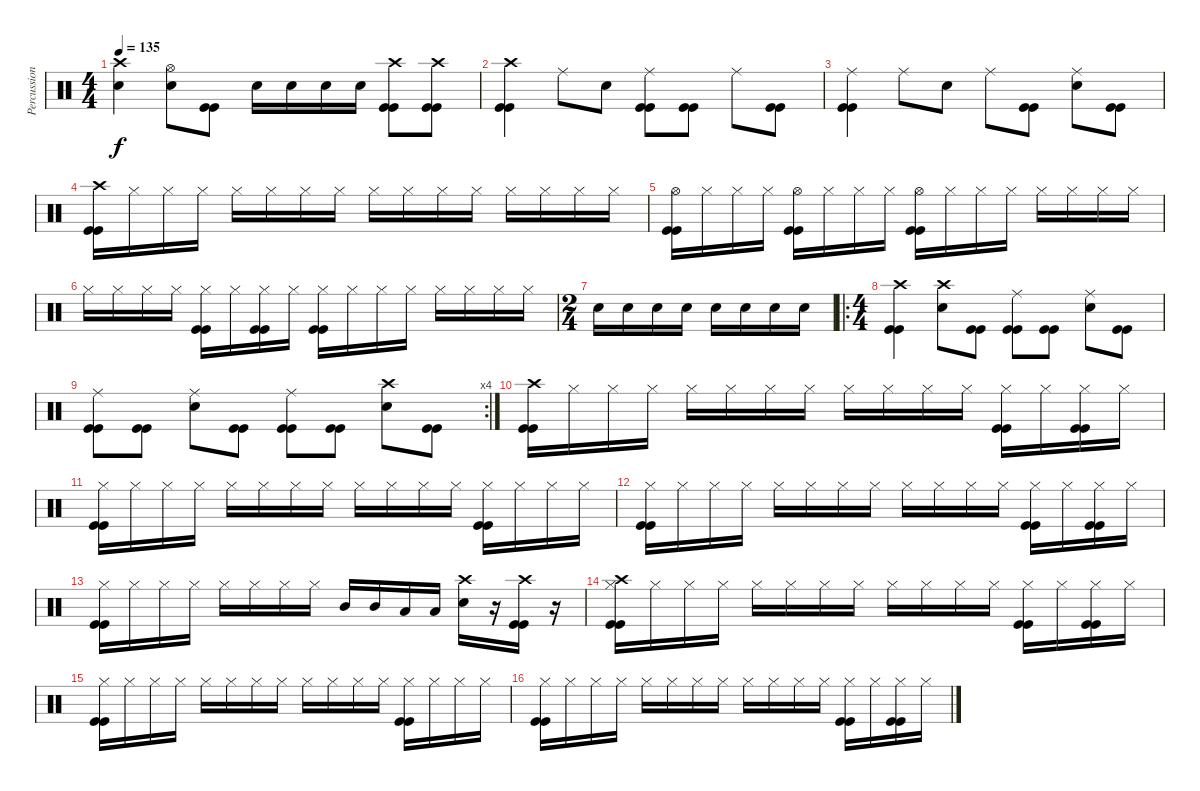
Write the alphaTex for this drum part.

\track ("Percussion" "Percussion") {instrument percussion}
\staff {score}
\articulation defaults
\ts (4 4)
\tempo 135
\clef neutral
\ks c
("Crash high (hit)" "Electric Snare (hit)").4{dy f} ("Hi-Hat (open)" "Electric Snare (hit)").8 ("Kick (hit)" "Kick (hit)").8 "Electric Snare (hit)".16 "Electric Snare (hit)".16 "Electric Snare (hit)".16 "Electric Snare (hit)".16 ("Crash high (hit)" "Kick (hit)" "Kick (hit)").8 ("Crash high (hit)" "Kick (hit)" "Kick (hit)").8 |
("Crash high (hit)" "Kick (hit)" "Kick (hit)").4 "Ride (middle)".8 "Electric Snare (hit)".8 ("Ride (middle)" "Kick (hit)" "Kick (hit)").8 ("Kick (hit)" "Kick (hit)").8 "Ride (middle)".8 ("Kick (hit)" "Kick (hit)").8 |
("Ride (middle)" "Kick (hit)" "Kick (hit)").4 "Ride (middle)".8 "Electric Snare (hit)".8 "Ride (middle)".8 ("Kick (hit)" "Kick (hit)").8 ("Ride (middle)" "Electric Snare (hit)").8 ("Kick (hit)" "Kick (hit)").8 |
("Crash high (hit)" "Kick (hit)" "Kick (hit)").16 "Hi-Hat (closed)".16 "Hi-Hat (closed)".16 "Hi-Hat (closed)".16 "Hi-Hat (closed)".16 "Hi-Hat (closed)".16 "Hi-Hat (closed)".16 "Hi-Hat (closed)".16 "Hi-Hat (closed)".16 "Hi-Hat (closed)".16 "Hi-Hat (closed)".16 "Hi-Hat (closed)".16 "Hi-Hat (closed)".16 "Hi-Hat (closed)".16 "Hi-Hat (closed)".16 "Hi-Hat (closed)".16 |
("Hi-Hat (open)" "Kick (hit)" "Kick (hit)").16 "Hi-Hat (closed)".16 "Hi-Hat (closed)".16 "Hi-Hat (closed)".16 ("Hi-Hat (open)" "Kick (hit)" "Kick (hit)").16 "Hi-Hat (closed)".16 "Hi-Hat (closed)".16 "Hi-Hat (closed)".16 ("Hi-Hat (open)" "Kick (hit)" "Kick (hit)").16 "Hi-Hat (closed)".16 "Hi-Hat (closed)".16 "Hi-Hat (closed)".16 "Hi-Hat (closed)".16 "Hi-Hat (closed)".16 "Hi-Hat (closed)".16 "Hi-Hat (closed)".16 |
"Hi-Hat (closed)".16 "Hi-Hat (closed)".16 "Hi-Hat (closed)".16 "Hi-Hat (closed)".16 ("Hi-Hat (closed)" "Kick (hit)" "Kick (hit)").16 "Hi-Hat (closed)".16 ("Hi-Hat (closed)" "Kick (hit)" "Kick (hit)").16 "Hi-Hat (closed)".16 ("Hi-Hat (closed)" "Kick (hit)" "Kick (hit)").16 "Hi-Hat (closed)".16 "Hi-Hat (closed)".16 "Hi-Hat (closed)".16 "Hi-Hat (closed)".16 "Hi-Hat (closed)".16 "Hi-Hat (closed)".16 "Hi-Hat (closed)".16 |
\ts (2 4)
"Electric Snare (hit)".16 "Electric Snare (hit)".16 "Electric Snare (hit)".16 "Electric Snare (hit)".16 "Electric Snare (hit)".16 "Electric Snare (hit)".16 "Electric Snare (hit)".16 "Electric Snare (hit)".16 |
\ro
\ts (4 4)
("Crash high (hit)" "Kick (hit)" "Kick (hit)").4 ("Crash high (hit)" "Electric Snare (hit)").8 ("Kick (hit)" "Kick (hit)").8 ("Ride (middle)" "Kick (hit)" "Kick (hit)").8 ("Kick (hit)" "Kick (hit)").8 ("Ride (middle)" "Electric Snare (hit)").8 ("Kick (hit)" "Kick (hit)").8 |
\rc 4
("Ride (middle)" "Kick (hit)" "Kick (hit)").8 ("Kick (hit)" "Kick (hit)").8 ("Ride (middle)" "Electric Snare (hit)").8 ("Kick (hit)" "Kick (hit)").8 ("Ride (middle)" "Kick (hit)" "Kick (hit)").8 ("Kick (hit)" "Kick (hit)").8 ("Crash high (hit)" "Electric Snare (hit)").8 ("Kick (hit)" "Kick (hit)").8 |
("Crash high (hit)" "Kick (hit)" "Kick (hit)").16 "Hi-Hat (closed)".16 "Hi-Hat (closed)".16 "Hi-Hat (closed)".16 "Hi-Hat (closed)".16 "Hi-Hat (closed)".16 "Hi-Hat (closed)".16 "Hi-Hat (closed)".16 "Hi-Hat (closed)".16 "Hi-Hat (closed)".16 "Hi-Hat (closed)".16 "Hi-Hat (closed)".16 ("Hi-Hat (closed)" "Kick (hit)" "Kick (hit)").16 "Hi-Hat (closed)".16 ("Hi-Hat (closed)" "Kick (hit)" "Kick (hit)").16 "Hi-Hat (closed)".16 |
("Hi-Hat (closed)" "Kick (hit)" "Kick (hit)").16 "Hi-Hat (closed)".16 "Hi-Hat (closed)".16 "Hi-Hat (closed)".16 "Hi-Hat (closed)".16 "Hi-Hat (closed)".16 "Hi-Hat (closed)".16 "Hi-Hat (closed)".16 "Hi-Hat (closed)".16 "Hi-Hat (closed)".16 "Hi-Hat (closed)".16 "Hi-Hat (closed)".16 ("Hi-Hat (closed)" "Kick (hit)" "Kick (hit)").16 "Hi-Hat (closed)".16 "Hi-Hat (closed)".16 "Hi-Hat (closed)".16 |
("Hi-Hat (closed)" "Kick (hit)" "Kick (hit)").16 "Hi-Hat (closed)".16 "Hi-Hat (closed)".16 "Hi-Hat (closed)".16 "Hi-Hat (closed)".16 "Hi-Hat (closed)".16 "Hi-Hat (closed)".16 "Hi-Hat (closed)".16 "Hi-Hat (closed)".16 "Hi-Hat (closed)".16 "Hi-Hat (closed)".16 "Hi-Hat (closed)".16 ("Hi-Hat (closed)" "Kick (hit)" "Kick (hit)").16 "Hi-Hat (closed)".16 ("Hi-Hat (closed)" "Kick (hit)" "Kick (hit)").16 "Hi-Hat (closed)".16 |
("Hi-Hat (closed)" "Kick (hit)" "Kick (hit)").16 "Hi-Hat (closed)".16 "Hi-Hat (closed)".16 "Hi-Hat (closed)".16 "Hi-Hat (closed)".16 "Hi-Hat (closed)".16 "Hi-Hat (closed)".16 "Hi-Hat (closed)".16 "Mid Tom (hit)".16 "Mid Tom (hit)".16 "Low Floor Tom (hit)".16 "Low Floor Tom (hit)".16 ("Crash high (hit)" "Electric Snare (hit)").16 r.16 ("Crash high (hit)" "Kick (hit)" "Kick (hit)").16 r.16 |
("Crash high (hit)" "Hi-Hat (closed)" "Kick (hit)" "Kick (hit)").16 "Hi-Hat (closed)".16 "Hi-Hat (closed)".16 "Hi-Hat (closed)".16 "Hi-Hat (closed)".16 "Hi-Hat (closed)".16 "Hi-Hat (closed)".16 "Hi-Hat (closed)".16 "Hi-Hat (closed)".16 "Hi-Hat (closed)".16 "Hi-Hat (closed)".16 "Hi-Hat (closed)".16 ("Hi-Hat (closed)" "Kick (hit)" "Kick (hit)").16 "Hi-Hat (closed)".16 ("Hi-Hat (closed)" "Kick (hit)" "Kick (hit)").16 "Hi-Hat (closed)".16 |
("Hi-Hat (closed)" "Kick (hit)" "Kick (hit)").16 "Hi-Hat (closed)".16 "Hi-Hat (closed)".16 "Hi-Hat (closed)".16 "Hi-Hat (closed)".16 "Hi-Hat (closed)".16 "Hi-Hat (closed)".16 "Hi-Hat (closed)".16 "Hi-Hat (closed)".16 "Hi-Hat (closed)".16 "Hi-Hat (closed)".16 "Hi-Hat (closed)".16 ("Hi-Hat (closed)" "Kick (hit)" "Kick (hit)").16 "Hi-Hat (closed)".16 "Hi-Hat (closed)".16 "Hi-Hat (closed)".16 |
("Hi-Hat (closed)" "Kick (hit)" "Kick (hit)").16 "Hi-Hat (closed)".16 "Hi-Hat (closed)".16 "Hi-Hat (closed)".16 "Hi-Hat (closed)".16 "Hi-Hat (closed)".16 "Hi-Hat (closed)".16 "Hi-Hat (closed)".16 "Hi-Hat (closed)".16 "Hi-Hat (closed)".16 "Hi-Hat (closed)".16 "Hi-Hat (closed)".16 ("Hi-Hat (closed)" "Kick (hit)" "Kick (hit)").16 "Hi-Hat (closed)".16 ("Hi-Hat (closed)" "Kick (hit)" "Kick (hit)").16 "Hi-Hat (closed)".16
